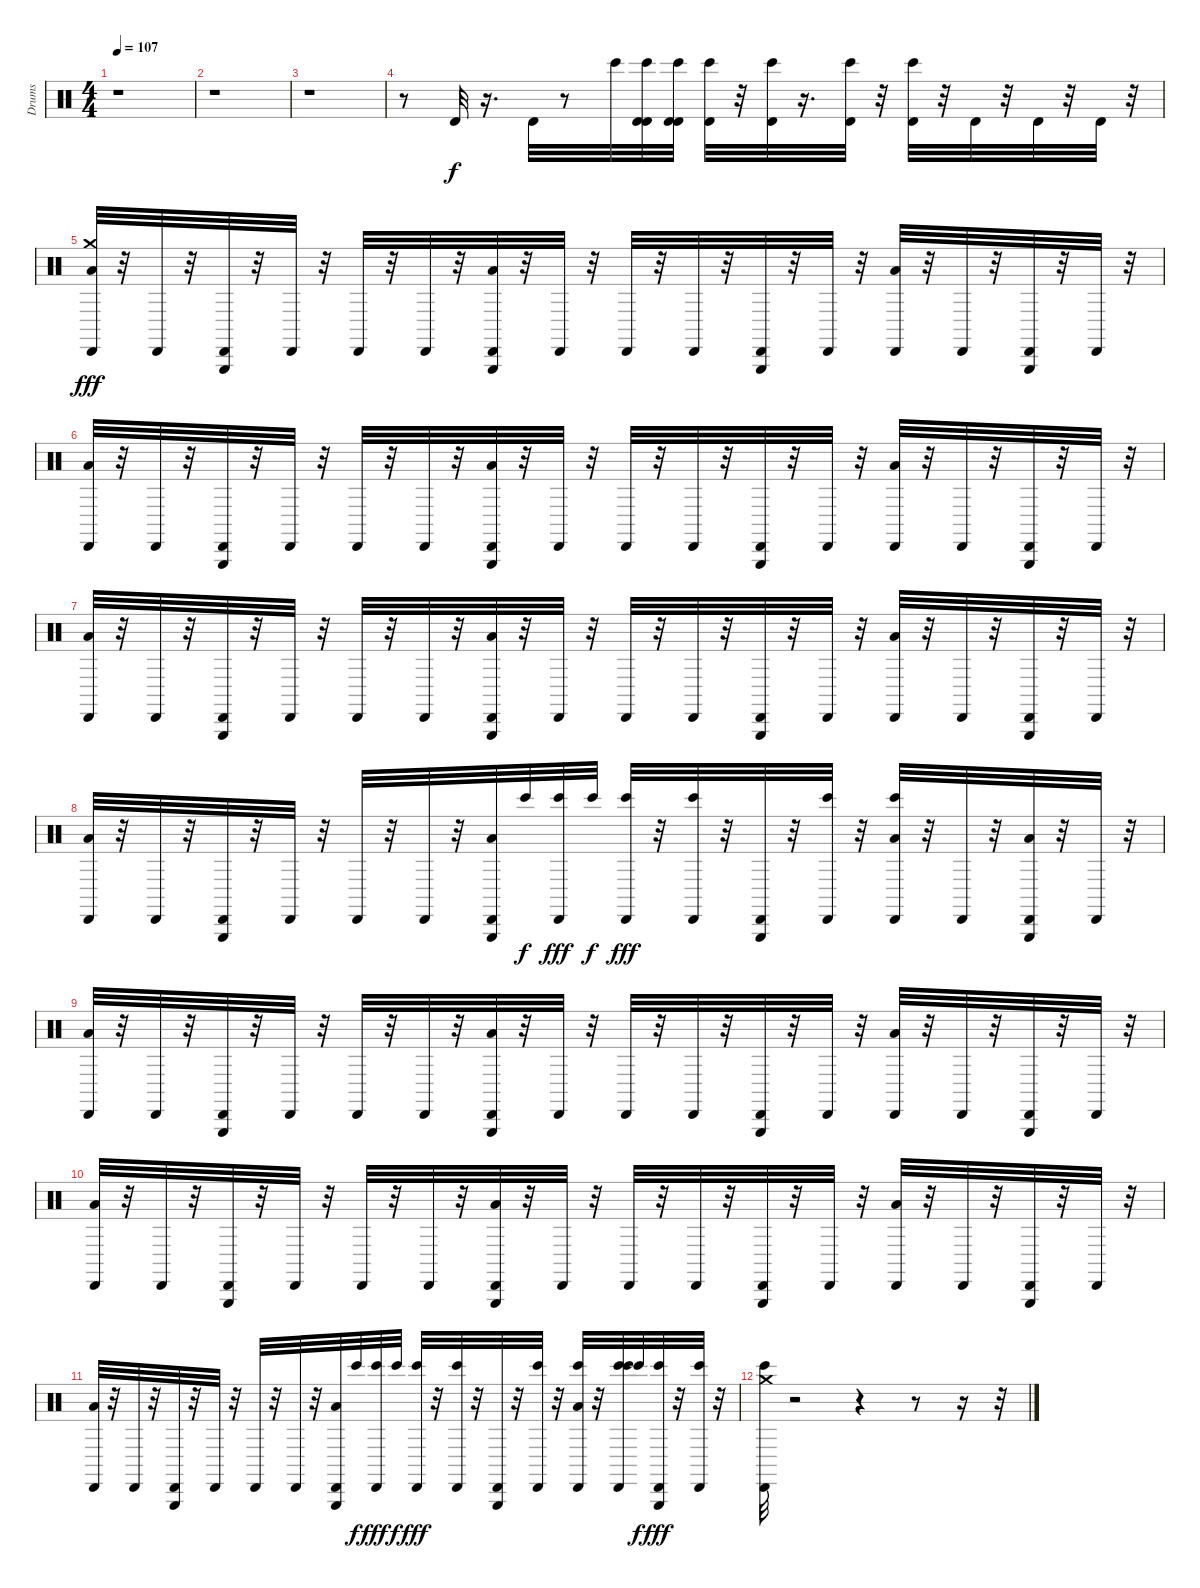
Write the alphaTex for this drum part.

\track ("Drums" "Drums") {instrument percussion}
\staff {score}
\articulation defaults
\ts (4 4)
\tempo 107
\clef neutral
\ks c
r.1{dy fff} |
r.1 |
r.1 |
r.8 "Timbale high (hit)".32{dy f} r.16{d} "Timbale high (hit)".32 r.8 "Bongo High (hit)".32 ("Bongo High (hit)" "Timbale high (hit)" "Timbale high (hit)").32 ("Bongo High (hit)" "Timbale high (hit)" "Timbale high (hit)").32 ("Bongo High (hit)" "Timbale high (hit)").32 r.32 ("Bongo High (hit)" "Timbale high (hit)").32 r.16{d} ("Bongo High (hit)" "Timbale high (hit)").32 r.32 ("Bongo High (hit)" "Timbale high (hit)").32 r.32 "Timbale high (hit)".32 r.32 "Timbale high (hit)".32 r.32 "Timbale high (hit)".32 r.32 |
("Cabasa (hit)" "Crash medium (hit)" "Low Floor Tom (hit)").32{dy fff} r.32 "Cabasa (hit)".32 r.32 ("Cabasa (hit)" "Triangle (hit)").32 r.32 "Cabasa (hit)".32 r.32 "Cabasa (hit)".32 r.32 "Cabasa (hit)".32 r.32 ("Cabasa (hit)" "Triangle (hit)" "Low Floor Tom (hit)").32 r.32 "Cabasa (hit)".32 r.32 "Cabasa (hit)".32 r.32 "Cabasa (hit)".32 r.32 ("Cabasa (hit)" "Triangle (hit)").32 r.32 "Cabasa (hit)".32 r.32 ("Cabasa (hit)" "Low Floor Tom (hit)").32 r.32 "Cabasa (hit)".32 r.32 ("Cabasa (hit)" "Triangle (hit)").32 r.32 "Cabasa (hit)".32 r.32 |
("Cabasa (hit)" "Low Floor Tom (hit)").32 r.32 "Cabasa (hit)".32 r.32 ("Cabasa (hit)" "Triangle (hit)").32 r.32 "Cabasa (hit)".32 r.32 "Cabasa (hit)".32 r.32 "Cabasa (hit)".32 r.32 ("Cabasa (hit)" "Triangle (hit)" "Low Floor Tom (hit)").32 r.32 "Cabasa (hit)".32 r.32 "Cabasa (hit)".32 r.32 "Cabasa (hit)".32 r.32 ("Cabasa (hit)" "Triangle (hit)").32 r.32 "Cabasa (hit)".32 r.32 ("Cabasa (hit)" "Low Floor Tom (hit)").32 r.32 "Cabasa (hit)".32 r.32 ("Cabasa (hit)" "Triangle (hit)").32 r.32 "Cabasa (hit)".32 r.32 |
("Cabasa (hit)" "Low Floor Tom (hit)").32 r.32 "Cabasa (hit)".32 r.32 ("Cabasa (hit)" "Triangle (hit)").32 r.32 "Cabasa (hit)".32 r.32 "Cabasa (hit)".32 r.32 "Cabasa (hit)".32 r.32 ("Cabasa (hit)" "Triangle (hit)" "Low Floor Tom (hit)").32 r.32 "Cabasa (hit)".32 r.32 "Cabasa (hit)".32 r.32 "Cabasa (hit)".32 r.32 ("Cabasa (hit)" "Triangle (hit)").32 r.32 "Cabasa (hit)".32 r.32 ("Cabasa (hit)" "Low Floor Tom (hit)").32 r.32 "Cabasa (hit)".32 r.32 ("Cabasa (hit)" "Triangle (hit)").32 r.32 "Cabasa (hit)".32 r.32 |
("Cabasa (hit)" "Low Floor Tom (hit)").32 r.32 "Cabasa (hit)".32 r.32 ("Cabasa (hit)" "Triangle (hit)").32 r.32 "Cabasa (hit)".32 r.32 "Cabasa (hit)".32 r.32 "Cabasa (hit)".32 r.32 ("Cabasa (hit)" "Triangle (hit)" "Low Floor Tom (hit)").32 "Bongo High (hit)".32{dy f} ("Cabasa (hit)" "Bongo High (hit)").32{dy fff} "Bongo High (hit)".32{dy f} ("Cabasa (hit)" "Bongo High (hit)").32{dy fff} r.32 ("Cabasa (hit)" "Bongo High (hit)").32 r.32 ("Cabasa (hit)" "Triangle (hit)").32 r.32 ("Cabasa (hit)" "Bongo High (hit)").32 r.32 ("Cabasa (hit)" "Bongo High (hit)" "Low Floor Tom (hit)").32 r.32 "Cabasa (hit)".32 r.32 ("Cabasa (hit)" "Triangle (hit)" "Low Floor Tom (hit)").32 r.32 "Cabasa (hit)".32 r.32 |
("Cabasa (hit)" "Low Floor Tom (hit)").32 r.32 "Cabasa (hit)".32 r.32 ("Cabasa (hit)" "Triangle (hit)").32 r.32 "Cabasa (hit)".32 r.32 "Cabasa (hit)".32 r.32 "Cabasa (hit)".32 r.32 ("Cabasa (hit)" "Triangle (hit)" "Low Floor Tom (hit)").32 r.32 "Cabasa (hit)".32 r.32 "Cabasa (hit)".32 r.32 "Cabasa (hit)".32 r.32 ("Cabasa (hit)" "Triangle (hit)").32 r.32 "Cabasa (hit)".32 r.32 ("Cabasa (hit)" "Low Floor Tom (hit)").32 r.32 "Cabasa (hit)".32 r.32 ("Cabasa (hit)" "Triangle (hit)").32 r.32 "Cabasa (hit)".32 r.32 |
("Cabasa (hit)" "Low Floor Tom (hit)").32 r.32 "Cabasa (hit)".32 r.32 ("Cabasa (hit)" "Triangle (hit)").32 r.32 "Cabasa (hit)".32 r.32 "Cabasa (hit)".32 r.32 "Cabasa (hit)".32 r.32 ("Cabasa (hit)" "Triangle (hit)" "Low Floor Tom (hit)").32 r.32 "Cabasa (hit)".32 r.32 "Cabasa (hit)".32 r.32 "Cabasa (hit)".32 r.32 ("Cabasa (hit)" "Triangle (hit)").32 r.32 "Cabasa (hit)".32 r.32 ("Cabasa (hit)" "Low Floor Tom (hit)").32 r.32 "Cabasa (hit)".32 r.32 ("Cabasa (hit)" "Triangle (hit)").32 r.32 "Cabasa (hit)".32 r.32 |
("Cabasa (hit)" "Low Floor Tom (hit)").32 r.32 "Cabasa (hit)".32 r.32 ("Cabasa (hit)" "Triangle (hit)").32 r.32 "Cabasa (hit)".32 r.32 "Cabasa (hit)".32 r.32 "Cabasa (hit)".32 r.32 ("Cabasa (hit)" "Triangle (hit)" "Low Floor Tom (hit)").32 "Bongo High (hit)".32{dy f} ("Cabasa (hit)" "Bongo High (hit)").32{dy fff} "Bongo High (hit)".32{dy f} ("Cabasa (hit)" "Bongo High (hit)").32{dy fff} r.32 ("Cabasa (hit)" "Bongo High (hit)").32 r.32 ("Cabasa (hit)" "Triangle (hit)").32 r.32 ("Cabasa (hit)" "Bongo High (hit)").32 r.32 ("Cabasa (hit)" "Bongo High (hit)" "Low Floor Tom (hit)").32 r.32 ("Bongo High (hit)" "Cabasa (hit)" "Bongo High (hit)").32 "Bongo High (hit)".32{dy f} ("Cabasa (hit)" "Triangle (hit)" "Bongo High (hit)").32{dy fff} r.32 ("Cabasa (hit)" "Bongo High (hit)").32 r.32 |
("Cabasa (hit)" "Bongo High (hit)" "Crash medium (hit)").32 r.2 r.4 r.8 r.16 r.32
